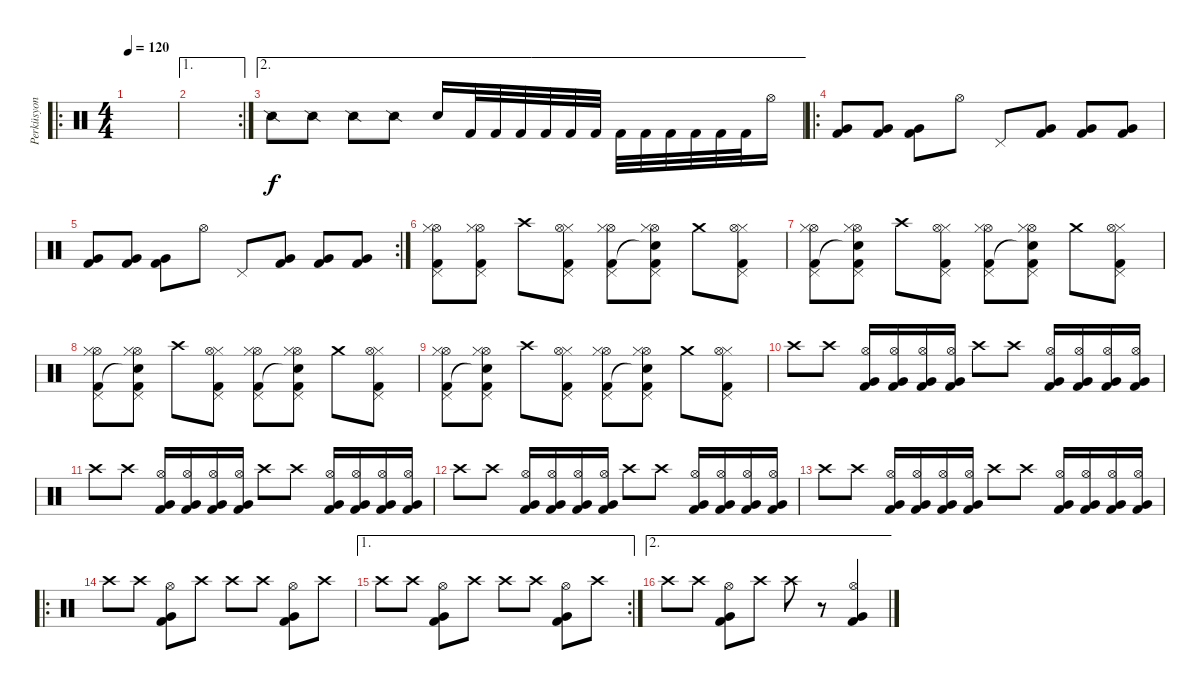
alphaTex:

\track ("Perküsyon" "Perküsyon") {instrument percussion}
\staff {score}
\articulation defaults
\ro
\ts (4 4)
\tempo 120
\clef neutral
\ks c
|
\ae 1
\rc 2
|
\ae 2 "Snare (side stick) 2".8 "Snare (side stick) 2".8 "Snare (side stick) 2".8 "Snare (side stick) 2".8 "Snare (hit) 2".16 "Kick (hit) 2".32 "Kick (hit) 2".32 "Kick (hit) 2".32 "Kick (hit) 2".32 "Kick (hit) 2".32 "Kick (hit) 2".32 "Kick (hit) 2".32 "Kick (hit) 2".32 "Kick (hit) 2".32 "Kick (hit) 2".32 "Kick (hit) 2".32 "Kick (hit) 2".32 "Hi-Hat (open)".16
|
\ro
("Kick (hit) 2" "Very Low Tom (hit)").8 ("Kick (hit) 2" "Very Low Tom (hit)").8 ("Kick (hit) 2" "Very Low Tom (hit)").8 "Hi-Hat (open)".8 "Pedal Hi-Hat (hit)".8 ("Kick (hit) 2" "Very Low Tom (hit)").8 ("Kick (hit) 2" "Very Low Tom (hit)").8 ("Very Low Tom (hit)" "Kick (hit) 2").8 |
\rc 2
("Kick (hit) 2" "Very Low Tom (hit)").8 ("Kick (hit) 2" "Very Low Tom (hit)").8 ("Kick (hit) 2" "Very Low Tom (hit)").8 "Hi-Hat (open)".8 "Pedal Hi-Hat (hit)".8 ("Kick (hit) 2" "Very Low Tom (hit)").8 ("Kick (hit) 2" "Very Low Tom (hit)").8 ("Very Low Tom (hit)" "Kick (hit) 2").8 |
("Kick (hit) 2" "Hi-Hat (open)" "Pedal Hi-Hat (hit)" "Hi-Hat (closed)").8 ("Kick (hit) 2" "Hi-Hat (open)" "Pedal Hi-Hat (hit)" "Hi-Hat (closed)").8 "Crash high (hit)".8 ("Hi-Hat (closed)" "Hi-Hat (open)" "Pedal Hi-Hat (hit)" "Kick (hit) 2").8 ("Kick (hit) 2" "Hi-Hat (open)" "Pedal Hi-Hat (hit)" "Hi-Hat (closed)").8 ("Snare (hit)"{t} "Kick (hit) 2" "Hi-Hat (open)" "Pedal Hi-Hat (hit)" "Hi-Hat (closed)").8 "Crash medium (hit)".8 ("Hi-Hat (closed)" "Hi-Hat (open)" "Pedal Hi-Hat (hit)" "Kick (hit) 2").8 |
("Kick (hit) 2" "Hi-Hat (open)" "Pedal Hi-Hat (hit)" "Hi-Hat (closed)").8 ("Snare (hit)"{t} "Kick (hit) 2" "Hi-Hat (open)" "Pedal Hi-Hat (hit)" "Hi-Hat (closed)").8 "Crash high (hit)".8 ("Hi-Hat (closed)" "Hi-Hat (open)" "Pedal Hi-Hat (hit)" "Kick (hit) 2").8 ("Kick (hit) 2" "Hi-Hat (open)" "Pedal Hi-Hat (hit)" "Hi-Hat (closed)").8 ("Snare (hit)"{t} "Kick (hit) 2" "Hi-Hat (open)" "Pedal Hi-Hat (hit)" "Hi-Hat (closed)").8 "Crash medium (hit)".8 ("Hi-Hat (closed)" "Hi-Hat (open)" "Pedal Hi-Hat (hit)" "Kick (hit) 2").8 |
("Kick (hit) 2" "Hi-Hat (open)" "Pedal Hi-Hat (hit)" "Hi-Hat (closed)").8 ("Snare (hit)"{t} "Kick (hit) 2" "Hi-Hat (open)" "Pedal Hi-Hat (hit)" "Hi-Hat (closed)").8 "Crash high (hit)".8 ("Hi-Hat (closed)" "Hi-Hat (open)" "Pedal Hi-Hat (hit)" "Kick (hit) 2").8 ("Kick (hit) 2" "Hi-Hat (open)" "Pedal Hi-Hat (hit)" "Hi-Hat (closed)").8 ("Snare (hit)"{t} "Kick (hit) 2" "Hi-Hat (open)" "Pedal Hi-Hat (hit)" "Hi-Hat (closed)").8 "Crash medium (hit)".8 ("Hi-Hat (closed)" "Hi-Hat (open)" "Pedal Hi-Hat (hit)" "Kick (hit) 2").8 |
("Kick (hit) 2" "Hi-Hat (open)" "Pedal Hi-Hat (hit)" "Hi-Hat (closed)").8 ("Snare (hit)"{t} "Kick (hit) 2" "Hi-Hat (open)" "Pedal Hi-Hat (hit)" "Hi-Hat (closed)").8 "Crash high (hit)".8 ("Hi-Hat (closed)" "Hi-Hat (open)" "Pedal Hi-Hat (hit)" "Kick (hit) 2").8 ("Kick (hit) 2" "Hi-Hat (open)" "Pedal Hi-Hat (hit)" "Hi-Hat (closed)").8 ("Snare (hit)"{t} "Kick (hit) 2" "Hi-Hat (open)" "Pedal Hi-Hat (hit)" "Hi-Hat (closed)").8 "Crash medium (hit)".8 ("Hi-Hat (closed)" "Hi-Hat (open)" "Pedal Hi-Hat (hit)" "Kick (hit) 2").8 |
"Crash high (hit)".8 "Crash high (hit)".8 ("Hi-Hat (open)" "Kick (hit) 2" "Very Low Tom (hit)").16 ("Hi-Hat (open)" "Kick (hit) 2" "Very Low Tom (hit)").16 ("Hi-Hat (open)" "Kick (hit) 2" "Very Low Tom (hit)").16 ("Hi-Hat (open)" "Kick (hit) 2" "Very Low Tom (hit)").16 "Crash high (hit)".8 "Crash high (hit)".8 ("Hi-Hat (open)" "Kick (hit) 2" "Very Low Tom (hit)").16 ("Hi-Hat (open)" "Kick (hit) 2" "Very Low Tom (hit)").16 ("Hi-Hat (open)" "Kick (hit) 2" "Very Low Tom (hit)").16 ("Hi-Hat (open)" "Kick (hit) 2" "Very Low Tom (hit)").16 |
"Crash high (hit)".8 "Crash high (hit)".8 ("Hi-Hat (open)" "Kick (hit) 2" "Very Low Tom (hit)").16 ("Hi-Hat (open)" "Kick (hit) 2" "Very Low Tom (hit)").16 ("Hi-Hat (open)" "Kick (hit) 2" "Very Low Tom (hit)").16 ("Hi-Hat (open)" "Kick (hit) 2" "Very Low Tom (hit)").16 "Crash high (hit)".8 "Crash high (hit)".8 ("Hi-Hat (open)" "Kick (hit) 2" "Very Low Tom (hit)").16 ("Hi-Hat (open)" "Kick (hit) 2" "Very Low Tom (hit)").16 ("Hi-Hat (open)" "Kick (hit) 2" "Very Low Tom (hit)").16 ("Hi-Hat (open)" "Kick (hit) 2" "Very Low Tom (hit)").16 |
"Crash high (hit)".8 "Crash high (hit)".8 ("Hi-Hat (open)" "Kick (hit) 2" "Very Low Tom (hit)").16 ("Hi-Hat (open)" "Kick (hit) 2" "Very Low Tom (hit)").16 ("Hi-Hat (open)" "Kick (hit) 2" "Very Low Tom (hit)").16 ("Hi-Hat (open)" "Kick (hit) 2" "Very Low Tom (hit)").16 "Crash high (hit)".8 "Crash high (hit)".8 ("Hi-Hat (open)" "Kick (hit) 2" "Very Low Tom (hit)").16 ("Hi-Hat (open)" "Kick (hit) 2" "Very Low Tom (hit)").16 ("Hi-Hat (open)" "Kick (hit) 2" "Very Low Tom (hit)").16 ("Hi-Hat (open)" "Kick (hit) 2" "Very Low Tom (hit)").16 |
"Crash high (hit)".8 "Crash high (hit)".8 ("Hi-Hat (open)" "Kick (hit) 2" "Very Low Tom (hit)").16 ("Hi-Hat (open)" "Kick (hit) 2" "Very Low Tom (hit)").16 ("Hi-Hat (open)" "Kick (hit) 2" "Very Low Tom (hit)").16 ("Hi-Hat (open)" "Kick (hit) 2" "Very Low Tom (hit)").16 "Crash high (hit)".8 "Crash high (hit)".8 ("Hi-Hat (open)" "Kick (hit) 2" "Very Low Tom (hit)").16 ("Hi-Hat (open)" "Kick (hit) 2" "Very Low Tom (hit)").16 ("Hi-Hat (open)" "Kick (hit) 2" "Very Low Tom (hit)").16 ("Hi-Hat (open)" "Kick (hit) 2" "Very Low Tom (hit)").16 |
\ro "Crash high (hit)".8 "Crash high (hit)".8
("Hi-Hat (open)" "Kick (hit) 2" "Very Low Tom (hit)").8 "Crash high (hit)".8 "Crash high (hit)".8 "Crash high (hit)".8 ("Hi-Hat (open)" "Kick (hit) 2" "Very Low Tom (hit)").8 "Crash high (hit)".8 |
\ae 1
\rc 2 "Crash high (hit)".8 "Crash high (hit)".8
("Hi-Hat (open)" "Kick (hit) 2" "Very Low Tom (hit)").8 "Crash high (hit)".8 "Crash high (hit)".8 "Crash high (hit)".8 ("Hi-Hat (open)" "Kick (hit) 2" "Very Low Tom (hit)").8 "Crash high (hit)".8 |
\ae 2 "Crash high (hit)".8 "Crash high (hit)".8
("Hi-Hat (open)" "Kick (hit) 2" "Very Low Tom (hit)").8 "Crash high (hit)".8 "Crash high (hit)".8 r.8 ("Kick (hit) 2" "Very Low Tom (hit)" "Hi-Hat (open)").4
